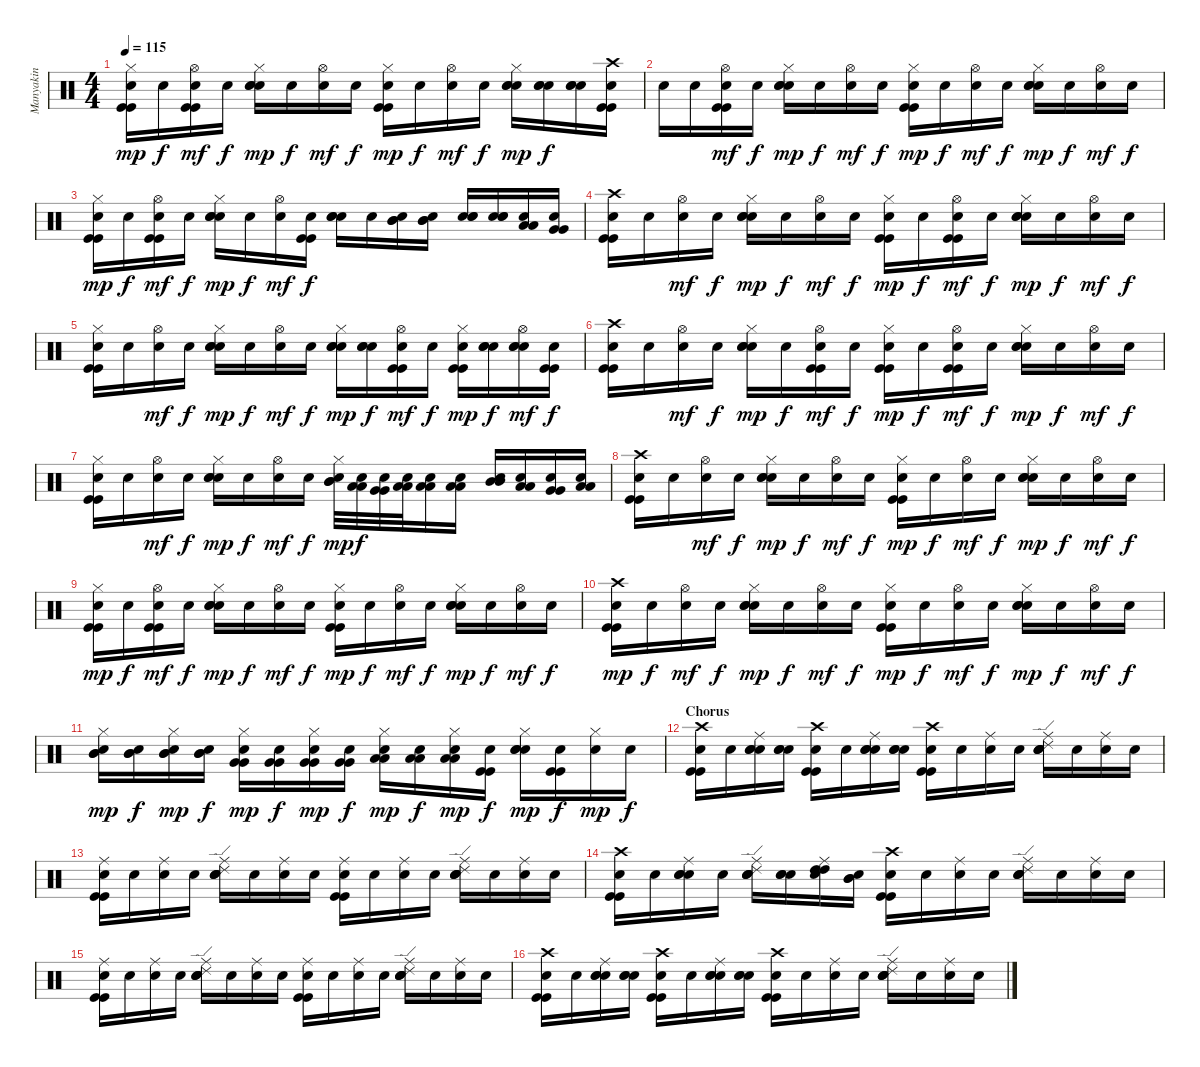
\track ("Manyakin" "Manyakin") {instrument percussion}
\staff {score}
\articulation defaults
\ts (4 4)
\tempo 115
\clef neutral
\ks c
("Hi-Hat (closed)" "Kick (hit)" "Kick (hit)" "Snare (hit)"{x}).16{dy mp} "Snare (hit)"{x}.16{dy f} ("Hi-Hat (open)" "Kick (hit)" "Kick (hit)" "Snare (hit)"{x}).16{dy mf} "Snare (hit)"{x}.16{dy f} ("Hi-Hat (closed)" "Electric Snare (hit)" "Electric Snare (hit)" "Snare (hit)"{x}).16{dy mp} "Snare (hit)"{x}.16{dy f} ("Hi-Hat (open)" "Snare (hit)"{x}).16{dy mf} "Snare (hit)"{x}.16{dy f} ("Hi-Hat (closed)" "Kick (hit)" "Kick (hit)" "Snare (hit)"{x}).16{dy mp} "Snare (hit)"{x}.16{dy f} ("Hi-Hat (open)" "Snare (hit)"{x}).16{dy mf} "Snare (hit)"{x}.16{dy f} ("Hi-Hat (closed)" "Electric Snare (hit)" "Electric Snare (hit)" "Snare (hit)"{x}).16{dy mp} ("Electric Snare (hit)" "Electric Snare (hit)" "Snare (hit)"{x}).16{dy f} ("Electric Snare (hit)" "Electric Snare (hit)" "Snare (hit)"{x}).16 ("Crash high (hit)" "Kick (hit)" "Kick (hit)" "Snare (hit)"{x}).16 |
"Snare (hit)"{x}.16 "Snare (hit)"{x}.16 ("Hi-Hat (open)" "Kick (hit)" "Kick (hit)" "Snare (hit)"{x}).16{dy mf} "Snare (hit)"{x}.16{dy f} ("Hi-Hat (closed)" "Electric Snare (hit)" "Electric Snare (hit)" "Snare (hit)"{x}).16{dy mp} "Snare (hit)"{x}.16{dy f} ("Hi-Hat (open)" "Snare (hit)"{x}).16{dy mf} "Snare (hit)"{x}.16{dy f} ("Hi-Hat (closed)" "Kick (hit)" "Kick (hit)" "Snare (hit)"{x}).16{dy mp} "Snare (hit)"{x}.16{dy f} ("Hi-Hat (open)" "Snare (hit)"{x}).16{dy mf} "Snare (hit)"{x}.16{dy f} ("Hi-Hat (closed)" "Electric Snare (hit)" "Electric Snare (hit)" "Snare (hit)"{x}).16{dy mp} "Snare (hit)"{x}.16{dy f} ("Hi-Hat (open)" "Snare (hit)"{x}).16{dy mf} "Snare (hit)"{x}.16{dy f} |
("Hi-Hat (closed)" "Kick (hit)" "Kick (hit)" "Snare (hit)"{x}).16{dy mp} "Snare (hit)"{x}.16{dy f} ("Hi-Hat (open)" "Kick (hit)" "Kick (hit)" "Snare (hit)"{x}).16{dy mf} "Snare (hit)"{x}.16{dy f} ("Hi-Hat (closed)" "Electric Snare (hit)" "Electric Snare (hit)" "Snare (hit)"{x}).16{dy mp} "Snare (hit)"{x}.16{dy f} ("Hi-Hat (open)" "Snare (hit)"{x}).16{dy mf} ("Kick (hit)" "Kick (hit)" "Snare (hit)"{x}).16{dy f} ("Electric Snare (hit)" "Electric Snare (hit)" "Snare (hit)"{x}).16 "Snare (hit)"{x}.16 ("Mid Tom (hit)" "Mid Tom (hit)" "Snare (hit)"{x}).16 ("Mid Tom (hit)" "Mid Tom (hit)" "Snare (hit)"{x}).16 ("Electric Snare (hit)" "Electric Snare (hit)" "Snare (hit)"{x}).16 ("Electric Snare (hit)" "Electric Snare (hit)" "Snare (hit)"{x}).16 ("Low Tom (hit)" "Low Tom (hit)" "Snare (hit)"{x}).16 ("Very Low Tom (hit)" "Very Low Tom (hit)" "Snare (hit)"{x}).16 |
("Crash high (hit)" "Kick (hit)" "Kick (hit)" "Snare (hit)"{x}).16 "Snare (hit)"{x}.16 ("Hi-Hat (open)" "Snare (hit)"{x}).16{dy mf} "Snare (hit)"{x}.16{dy f} ("Hi-Hat (closed)" "Electric Snare (hit)" "Electric Snare (hit)" "Snare (hit)"{x}).16{dy mp} "Snare (hit)"{x}.16{dy f} ("Hi-Hat (open)" "Snare (hit)"{x}).16{dy mf} "Snare (hit)"{x}.16{dy f} ("Hi-Hat (closed)" "Kick (hit)" "Kick (hit)" "Snare (hit)"{x}).16{dy mp} "Snare (hit)"{x}.16{dy f} ("Hi-Hat (open)" "Kick (hit)" "Kick (hit)" "Snare (hit)"{x}).16{dy mf} "Snare (hit)"{x}.16{dy f} ("Hi-Hat (closed)" "Electric Snare (hit)" "Electric Snare (hit)" "Snare (hit)"{x}).16{dy mp} "Snare (hit)"{x}.16{dy f} ("Hi-Hat (open)" "Snare (hit)"{x}).16{dy mf} "Snare (hit)"{x}.16{dy f} |
("Hi-Hat (closed)" "Kick (hit)" "Kick (hit)" "Snare (hit)"{x}).16 "Snare (hit)"{x}.16 ("Hi-Hat (open)" "Snare (hit)"{x}).16{dy mf} "Snare (hit)"{x}.16{dy f} ("Hi-Hat (closed)" "Electric Snare (hit)" "Electric Snare (hit)" "Snare (hit)"{x}).16{dy mp} "Snare (hit)"{x}.16{dy f} ("Hi-Hat (open)" "Snare (hit)"{x}).16{dy mf} "Snare (hit)"{x}.16{dy f} ("Hi-Hat (closed)" "Electric Snare (hit)" "Electric Snare (hit)" "Snare (hit)"{x}).16{dy mp} ("Electric Snare (hit)" "Electric Snare (hit)" "Snare (hit)"{x}).16{dy f} ("Hi-Hat (open)" "Kick (hit)" "Kick (hit)" "Snare (hit)"{x}).16{dy mf} "Snare (hit)"{x}.16{dy f} ("Hi-Hat (closed)" "Kick (hit)" "Kick (hit)" "Snare (hit)"{x}).16{dy mp} ("Electric Snare (hit)" "Electric Snare (hit)" "Snare (hit)"{x}).16{dy f} ("Hi-Hat (open)" "Electric Snare (hit)" "Electric Snare (hit)" "Snare (hit)"{x}).16{dy mf} ("Kick (hit)" "Kick (hit)" "Snare (hit)"{x}).16{dy f} |
("Crash high (hit)" "Kick (hit)" "Kick (hit)" "Snare (hit)"{x}).16 "Snare (hit)"{x}.16 ("Hi-Hat (open)" "Snare (hit)"{x}).16{dy mf} "Snare (hit)"{x}.16{dy f} ("Hi-Hat (closed)" "Electric Snare (hit)" "Electric Snare (hit)" "Snare (hit)"{x}).16{dy mp} "Snare (hit)"{x}.16{dy f} ("Hi-Hat (open)" "Kick (hit)" "Kick (hit)" "Snare (hit)"{x}).16{dy mf} "Snare (hit)"{x}.16{dy f} ("Hi-Hat (closed)" "Kick (hit)" "Kick (hit)" "Snare (hit)"{x}).16{dy mp} "Snare (hit)"{x}.16{dy f} ("Hi-Hat (open)" "Kick (hit)" "Kick (hit)" "Snare (hit)"{x}).16{dy mf} "Snare (hit)"{x}.16{dy f} ("Hi-Hat (closed)" "Electric Snare (hit)" "Electric Snare (hit)" "Snare (hit)"{x}).16{dy mp} "Snare (hit)"{x}.16{dy f} ("Hi-Hat (open)" "Snare (hit)"{x}).16{dy mf} "Snare (hit)"{x}.16{dy f} |
("Hi-Hat (closed)" "Kick (hit)" "Kick (hit)" "Snare (hit)"{x}).16 "Snare (hit)"{x}.16 ("Hi-Hat (open)" "Snare (hit)"{x}).16{dy mf} "Snare (hit)"{x}.16{dy f} ("Hi-Hat (closed)" "Electric Snare (hit)" "Electric Snare (hit)" "Snare (hit)"{x}).16{dy mp} "Snare (hit)"{x}.16{dy f} ("Hi-Hat (open)" "Snare (hit)"{x}).16{dy mf} "Snare (hit)"{x}.16{dy f} ("Hi-Hat (closed)" "Mid Tom (hit)" "Mid Tom (hit)" "Snare (hit)"{x}).32{dy mp} ("Low Tom (hit)" "Low Tom (hit)" "Snare (hit)"{x}).32{dy f} ("Very Low Tom (hit)" "Very Low Tom (hit)" "Snare (hit)"{x}).32 ("Low Floor Tom (hit)" "Low Floor Tom (hit)" "Snare (hit)"{x}).32 ("Low Floor Tom (hit)" "Low Floor Tom (hit)" "Snare (hit)"{x}).16 ("Low Floor Tom (hit)" "Low Floor Tom (hit)" "Snare (hit)"{x}).16 ("Mid Tom (hit)" "Mid Tom (hit)" "Snare (hit)"{x}).16 ("Low Tom (hit)" "Low Tom (hit)" "Snare (hit)"{x}).16 ("Very Low Tom (hit)" "Very Low Tom (hit)" "Snare (hit)"{x}).16 ("Low Floor Tom (hit)" "Low Floor Tom (hit)" "Snare (hit)"{x}).16 |
("Crash high (hit)" "Kick (hit)" "Kick (hit)" "Snare (hit)"{x}).16 "Snare (hit)"{x}.16 ("Hi-Hat (open)" "Snare (hit)"{x}).16{dy mf} "Snare (hit)"{x}.16{dy f} ("Hi-Hat (closed)" "Electric Snare (hit)" "Electric Snare (hit)" "Snare (hit)"{x}).16{dy mp} "Snare (hit)"{x}.16{dy f} ("Hi-Hat (open)" "Snare (hit)"{x}).16{dy mf} "Snare (hit)"{x}.16{dy f} ("Hi-Hat (closed)" "Kick (hit)" "Kick (hit)" "Snare (hit)"{x}).16{dy mp} "Snare (hit)"{x}.16{dy f} ("Hi-Hat (open)" "Snare (hit)"{x}).16{dy mf} "Snare (hit)"{x}.16{dy f} ("Hi-Hat (closed)" "Electric Snare (hit)" "Electric Snare (hit)" "Snare (hit)"{x}).16{dy mp} "Snare (hit)"{x}.16{dy f} ("Hi-Hat (open)" "Snare (hit)"{x}).16{dy mf} "Snare (hit)"{x}.16{dy f} |
("Hi-Hat (closed)" "Kick (hit)" "Kick (hit)" "Snare (hit)"{x}).16{dy mp} "Snare (hit)"{x}.16{dy f} ("Hi-Hat (open)" "Kick (hit)" "Kick (hit)" "Snare (hit)"{x}).16{dy mf} "Snare (hit)"{x}.16{dy f} ("Hi-Hat (closed)" "Electric Snare (hit)" "Electric Snare (hit)" "Snare (hit)"{x}).16{dy mp} "Snare (hit)"{x}.16{dy f} ("Hi-Hat (open)" "Snare (hit)"{x}).16{dy mf} "Snare (hit)"{x}.16{dy f} ("Hi-Hat (closed)" "Kick (hit)" "Kick (hit)" "Snare (hit)"{x}).16{dy mp} "Snare (hit)"{x}.16{dy f} ("Hi-Hat (open)" "Snare (hit)"{x}).16{dy mf} "Snare (hit)"{x}.16{dy f} ("Hi-Hat (closed)" "Electric Snare (hit)" "Electric Snare (hit)" "Snare (hit)"{x}).16{dy mp} "Snare (hit)"{x}.16{dy f} ("Hi-Hat (open)" "Snare (hit)"{x}).16{dy mf} "Snare (hit)"{x}.16{dy f} |
("Crash high (hit)" "Kick (hit)" "Kick (hit)" "Snare (hit)"{x}).16{dy mp} "Snare (hit)"{x}.16{dy f} ("Hi-Hat (open)" "Snare (hit)"{x}).16{dy mf} "Snare (hit)"{x}.16{dy f} ("Hi-Hat (closed)" "Electric Snare (hit)" "Electric Snare (hit)" "Snare (hit)"{x}).16{dy mp} "Snare (hit)"{x}.16{dy f} ("Hi-Hat (open)" "Snare (hit)"{x}).16{dy mf} "Snare (hit)"{x}.16{dy f} ("Hi-Hat (closed)" "Kick (hit)" "Kick (hit)" "Snare (hit)"{x}).16{dy mp} "Snare (hit)"{x}.16{dy f} ("Hi-Hat (open)" "Snare (hit)"{x}).16{dy mf} "Snare (hit)"{x}.16{dy f} ("Hi-Hat (closed)" "Electric Snare (hit)" "Electric Snare (hit)" "Snare (hit)"{x}).16{dy mp} "Snare (hit)"{x}.16{dy f} ("Hi-Hat (open)" "Snare (hit)"{x}).16{dy mf} "Snare (hit)"{x}.16{dy f} |
("Hi-Hat (closed)" "Mid Tom (hit)" "Mid Tom (hit)" "Snare (hit)"{x}).16{dy mp} ("Mid Tom (hit)" "Mid Tom (hit)" "Snare (hit)"{x}).16{dy f} ("Hi-Hat (closed)" "Mid Tom (hit)" "Mid Tom (hit)" "Snare (hit)"{x}).16{dy mp} ("Mid Tom (hit)" "Mid Tom (hit)" "Snare (hit)"{x}).16{dy f} ("Hi-Hat (closed)" "Very Low Tom (hit)" "Very Low Tom (hit)" "Snare (hit)"{x}).16{dy mp} ("Very Low Tom (hit)" "Very Low Tom (hit)" "Snare (hit)"{x}).16{dy f} ("Hi-Hat (closed)" "Very Low Tom (hit)" "Very Low Tom (hit)" "Snare (hit)"{x}).16{dy mp} ("Very Low Tom (hit)" "Very Low Tom (hit)" "Snare (hit)"{x}).16{dy f} ("Hi-Hat (closed)" "Low Floor Tom (hit)" "Low Floor Tom (hit)" "Snare (hit)"{x}).16{dy mp} ("Low Floor Tom (hit)" "Low Floor Tom (hit)" "Snare (hit)"{x}).16{dy f} ("Hi-Hat (closed)" "Low Floor Tom (hit)" "Low Floor Tom (hit)" "Snare (hit)"{x}).16{dy mp} ("Kick (hit)" "Kick (hit)" "Snare (hit)"{x}).16{dy f} ("Hi-Hat (closed)" "Electric Snare (hit)" "Electric Snare (hit)" "Snare (hit)"{x}).16{dy mp} ("Kick (hit)" "Kick (hit)" "Snare (hit)"{x}).16{dy f} ("Hi-Hat (closed)" "Snare (hit)"{x}).16{dy mp} "Snare (hit)"{x}.16{dy f} |
\section ("" "Chorus")
("Crash high (hit)" "Kick (hit)" "Kick (hit)" "Snare (hit)"{x}).16 "Snare (hit)"{x}.16 ("Ride (middle)" "Electric Snare (hit)" "Electric Snare (hit)" "Snare (hit)"{x}).16 ("Electric Snare (hit)" "Electric Snare (hit)" "Snare (hit)"{x}).16 ("Crash high (hit)" "Kick (hit)" "Kick (hit)" "Snare (hit)"{x}).16 "Snare (hit)"{x}.16 ("Ride (middle)" "Electric Snare (hit)" "Electric Snare (hit)" "Snare (hit)"{x}).16 ("Electric Snare (hit)" "Electric Snare (hit)" "Snare (hit)"{x}).16 ("Crash high (hit)" "Kick (hit)" "Kick (hit)" "Snare (hit)"{x}).16 "Snare (hit)"{x}.16 ("Ride (middle)" "Snare (hit)"{x}).16 "Snare (hit)"{x}.16 ("Ride (middle)" "Ride (edge) 2" "Electric Snare (hit)" "Electric Snare (hit)" "Snare (hit)"{x}).16 "Snare (hit)"{x}.16 ("Ride (middle)" "Snare (hit)"{x}).16 "Snare (hit)"{x}.16 |
("Ride (middle)" "Kick (hit)" "Kick (hit)" "Snare (hit)"{x}).16 "Snare (hit)"{x}.16 ("Ride (middle)" "Snare (hit)"{x}).16 "Snare (hit)"{x}.16 ("Ride (middle)" "Ride (edge) 2" "Electric Snare (hit)" "Electric Snare (hit)" "Snare (hit)"{x}).16 "Snare (hit)"{x}.16 ("Ride (middle)" "Snare (hit)"{x}).16 "Snare (hit)"{x}.16 ("Ride (middle)" "Kick (hit)" "Kick (hit)" "Snare (hit)"{x}).16 "Snare (hit)"{x}.16 ("Ride (middle)" "Snare (hit)"{x}).16 "Snare (hit)"{x}.16 ("Ride (middle)" "Ride (edge) 2" "Electric Snare (hit)" "Electric Snare (hit)" "Snare (hit)"{x}).16 "Snare (hit)"{x}.16 ("Ride (middle)" "Snare (hit)"{x}).16 "Snare (hit)"{x}.16 |
("Crash high (hit)" "Kick (hit)" "Kick (hit)" "Snare (hit)"{x}).16 "Snare (hit)"{x}.16 ("Ride (middle)" "Electric Snare (hit)" "Electric Snare (hit)" "Snare (hit)"{x}).16 "Snare (hit)"{x}.16 ("Ride (middle)" "Ride (edge) 2" "Electric Snare (hit)" "Electric Snare (hit)" "Snare (hit)"{x}).16 ("Electric Snare (hit)" "Electric Snare (hit)" "Snare (hit)"{x}).16 ("Ride (middle)" "High Tom (hit)" "High Tom (hit)" "Snare (hit)"{x}).16 ("Mid Tom (hit)" "Mid Tom (hit)" "Snare (hit)"{x}).16 ("Crash high (hit)" "Kick (hit)" "Kick (hit)" "Snare (hit)"{x}).16 "Snare (hit)"{x}.16 ("Ride (middle)" "Snare (hit)"{x}).16 "Snare (hit)"{x}.16 ("Ride (middle)" "Ride (edge) 2" "Electric Snare (hit)" "Electric Snare (hit)" "Snare (hit)"{x}).16 "Snare (hit)"{x}.16 ("Ride (middle)" "Snare (hit)"{x}).16 "Snare (hit)"{x}.16 |
("Ride (middle)" "Kick (hit)" "Kick (hit)" "Snare (hit)"{x}).16 "Snare (hit)"{x}.16 ("Ride (middle)" "Snare (hit)"{x}).16 "Snare (hit)"{x}.16 ("Ride (middle)" "Ride (edge) 2" "Electric Snare (hit)" "Electric Snare (hit)" "Snare (hit)"{x}).16 "Snare (hit)"{x}.16 ("Ride (middle)" "Snare (hit)"{x}).16 "Snare (hit)"{x}.16 ("Ride (middle)" "Kick (hit)" "Kick (hit)" "Snare (hit)"{x}).16 "Snare (hit)"{x}.16 ("Ride (middle)" "Snare (hit)"{x}).16 "Snare (hit)"{x}.16 ("Ride (middle)" "Ride (edge) 2" "Electric Snare (hit)" "Electric Snare (hit)" "Snare (hit)"{x}).16 "Snare (hit)"{x}.16 ("Ride (middle)" "Snare (hit)"{x}).16 "Snare (hit)"{x}.16 |
("Crash high (hit)" "Kick (hit)" "Kick (hit)" "Snare (hit)"{x}).16 "Snare (hit)"{x}.16 ("Ride (middle)" "Electric Snare (hit)" "Electric Snare (hit)" "Snare (hit)"{x}).16 ("Electric Snare (hit)" "Electric Snare (hit)" "Snare (hit)"{x}).16 ("Crash high (hit)" "Kick (hit)" "Kick (hit)" "Snare (hit)"{x}).16 "Snare (hit)"{x}.16 ("Ride (middle)" "Electric Snare (hit)" "Electric Snare (hit)" "Snare (hit)"{x}).16 ("Electric Snare (hit)" "Electric Snare (hit)" "Snare (hit)"{x}).16 ("Crash high (hit)" "Kick (hit)" "Kick (hit)" "Snare (hit)"{x}).16 "Snare (hit)"{x}.16 ("Ride (middle)" "Snare (hit)"{x}).16 "Snare (hit)"{x}.16 ("Ride (middle)" "Ride (edge) 2" "Electric Snare (hit)" "Electric Snare (hit)" "Snare (hit)"{x}).16 "Snare (hit)"{x}.16 ("Ride (middle)" "Snare (hit)"{x}).16 "Snare (hit)"{x}.16
